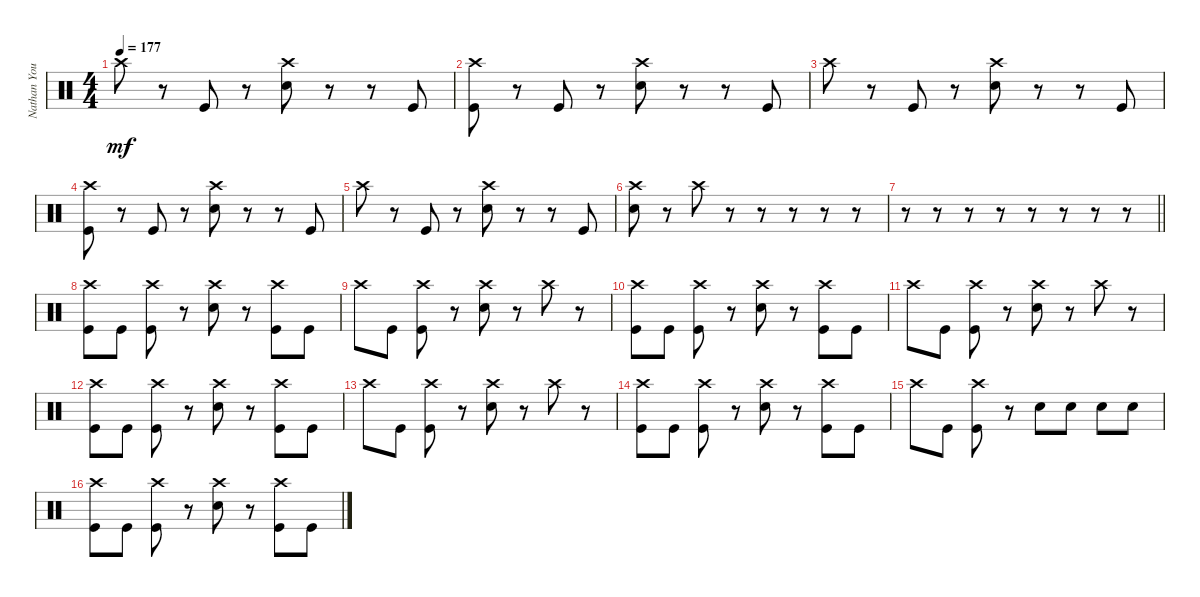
\track ("Nathan Young" "Nathan You") {instrument percussion}
\staff {score}
\articulation defaults
\ts (4 4)
\tempo 177
\clef neutral
\ks c "Crash high (hit)".8{dy mf}
r.8 "Kick (hit)".8 r.8 ("Crash high (hit)" "Snare (hit) 2").8 r.8 r.8 "Kick (hit)".8 |
("Crash high (hit)" "Kick (hit)").8 r.8 "Kick (hit)".8 r.8 ("Crash high (hit)" "Snare (hit) 2").8 r.8 r.8 "Kick (hit)".8 |
"Crash high (hit)".8 r.8 "Kick (hit)".8 r.8 ("Crash high (hit)" "Snare (hit) 2").8 r.8 r.8 "Kick (hit)".8 |
("Crash high (hit)" "Kick (hit)").8 r.8 "Kick (hit)".8 r.8 ("Crash high (hit)" "Snare (hit) 2").8 r.8 r.8 "Kick (hit)".8 |
"Crash high (hit)".8 r.8 "Kick (hit)".8 r.8 ("Crash high (hit)" "Snare (hit) 2").8 r.8 r.8 "Kick (hit)".8 |
("Crash high (hit)" "Snare (hit) 2").8 r.8 "Crash high (hit)".8 r.8 r.8 r.8 r.8 r.8 |
\barLineRight lightlight
r.8 r.8 r.8 r.8 r.8 r.8 r.8 r.8 |
("Crash high (hit)" "Kick (hit)").8 "Kick (hit)".8 ("Crash high (hit)" "Kick (hit)").8 r.8 ("Crash high (hit)" "Snare (hit) 2").8 r.8 ("Crash high (hit)" "Kick (hit)").8 "Kick (hit)".8 |
"Crash high (hit)".8 "Kick (hit)".8 ("Crash high (hit)" "Kick (hit)").8 r.8 ("Crash high (hit)" "Snare (hit) 2").8 r.8 "Crash high (hit)".8 r.8 |
("Crash high (hit)" "Kick (hit)").8 "Kick (hit)".8 ("Crash high (hit)" "Kick (hit)").8 r.8 ("Crash high (hit)" "Snare (hit) 2").8 r.8 ("Crash high (hit)" "Kick (hit)").8 "Kick (hit)".8 |
"Crash high (hit)".8 "Kick (hit)".8 ("Crash high (hit)" "Kick (hit)").8 r.8 ("Crash high (hit)" "Snare (hit) 2").8 r.8 "Crash high (hit)".8 r.8 |
("Crash high (hit)" "Kick (hit)").8 "Kick (hit)".8 ("Crash high (hit)" "Kick (hit)").8 r.8 ("Crash high (hit)" "Snare (hit) 2").8 r.8 ("Crash high (hit)" "Kick (hit)").8 "Kick (hit)".8 |
"Crash high (hit)".8 "Kick (hit)".8 ("Crash high (hit)" "Kick (hit)").8 r.8 ("Crash high (hit)" "Snare (hit) 2").8 r.8 "Crash high (hit)".8 r.8 |
("Crash high (hit)" "Kick (hit)").8 "Kick (hit)".8 ("Crash high (hit)" "Kick (hit)").8 r.8 ("Crash high (hit)" "Snare (hit) 2").8 r.8 ("Crash high (hit)" "Kick (hit)").8 "Kick (hit)".8 |
"Crash high (hit)".8 "Kick (hit)".8 ("Crash high (hit)" "Kick (hit)").8 r.8 "Snare (hit) 2".8 "Snare (hit) 2".8 "Snare (hit) 2".8 "Snare (hit) 2".8 |
("Crash high (hit)" "Kick (hit)").8 "Kick (hit)".8 ("Crash high (hit)" "Kick (hit)").8 r.8 ("Crash high (hit)" "Snare (hit) 2").8 r.8 ("Crash high (hit)" "Kick (hit)").8 "Kick (hit)".8
